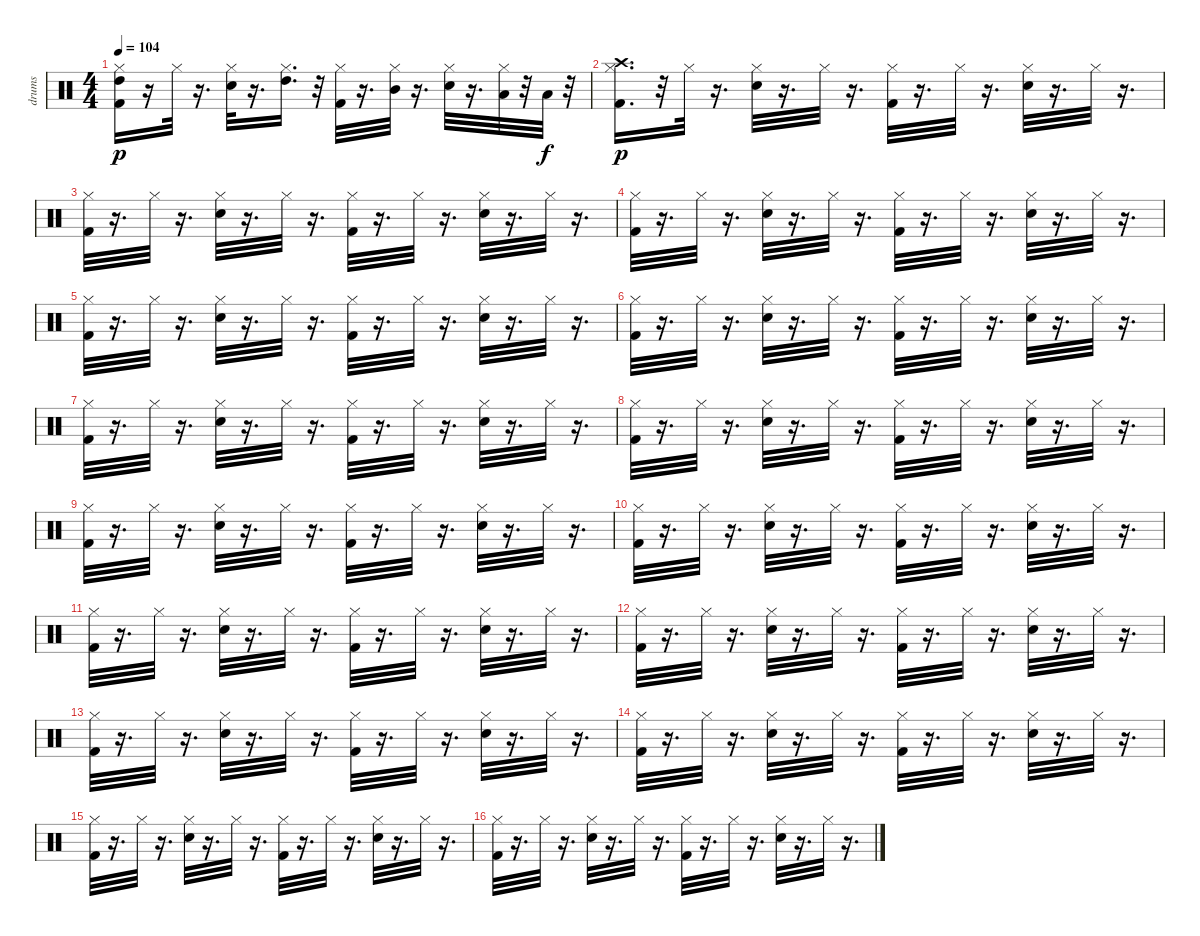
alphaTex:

\track ("drums" "drums") {instrument percussion}
\staff {score}
\articulation defaults
\ts (4 4)
\tempo 104
\clef neutral
\ks c
("Kick (hit) 2" "Hi-Hat (closed)" "High Tom (hit)").16{dy p} r.16 "Hi-Hat (closed)".32 r.16{d} ("Snare (hit) 2" "Hi-Hat (closed)").32 r.16{d} ("Hi-Hat (closed)" "High Tom (hit)").16{d} r.32 ("Kick (hit) 2" "Hi-Hat (closed)").32 r.16{d} ("Hi-Hat (closed)" "Mid Tom (hit)").32 r.16{d} ("Snare (hit) 2" "Hi-Hat (closed)").32 r.16{d} ("Hi-Hat (closed)" "Low Tom (hit)").32 r.32 "Low Tom (hit)".32{dy f} r.32 |
("Kick (hit) 2" "Hi-Hat (closed)" "Crash high (hit)").16{d dy p} r.32 "Hi-Hat (closed)".32 r.16{d} ("Snare (hit) 2" "Hi-Hat (closed)").32 r.16{d} "Hi-Hat (closed)".32 r.16{d} ("Kick (hit) 2" "Hi-Hat (closed)").32 r.16{d} "Hi-Hat (closed)".32 r.16{d} ("Snare (hit) 2" "Hi-Hat (closed)").32 r.16{d} "Hi-Hat (closed)".32 r.16{d} |
("Kick (hit) 2" "Hi-Hat (closed)").32 r.16{d} "Hi-Hat (closed)".32 r.16{d} ("Snare (hit) 2" "Hi-Hat (closed)").32 r.16{d} "Hi-Hat (closed)".32 r.16{d} ("Kick (hit) 2" "Hi-Hat (closed)").32 r.16{d} "Hi-Hat (closed)".32 r.16{d} ("Snare (hit) 2" "Hi-Hat (closed)").32 r.16{d} "Hi-Hat (closed)".32 r.16{d} |
("Kick (hit) 2" "Hi-Hat (closed)").32 r.16{d} "Hi-Hat (closed)".32 r.16{d} ("Snare (hit) 2" "Hi-Hat (closed)").32 r.16{d} "Hi-Hat (closed)".32 r.16{d} ("Kick (hit) 2" "Hi-Hat (closed)").32 r.16{d} "Hi-Hat (closed)".32 r.16{d} ("Snare (hit) 2" "Hi-Hat (closed)").32 r.16{d} "Hi-Hat (closed)".32 r.16{d} |
("Kick (hit) 2" "Hi-Hat (closed)").32 r.16{d} "Hi-Hat (closed)".32 r.16{d} ("Snare (hit) 2" "Hi-Hat (closed)").32 r.16{d} "Hi-Hat (closed)".32 r.16{d} ("Kick (hit) 2" "Hi-Hat (closed)").32 r.16{d} "Hi-Hat (closed)".32 r.16{d} ("Snare (hit) 2" "Hi-Hat (closed)").32 r.16{d} "Hi-Hat (closed)".32 r.16{d} |
("Kick (hit) 2" "Hi-Hat (closed)").32 r.16{d} "Hi-Hat (closed)".32 r.16{d} ("Snare (hit) 2" "Hi-Hat (closed)").32 r.16{d} "Hi-Hat (closed)".32 r.16{d} ("Kick (hit) 2" "Hi-Hat (closed)").32 r.16{d} "Hi-Hat (closed)".32 r.16{d} ("Snare (hit) 2" "Hi-Hat (closed)").32 r.16{d} "Hi-Hat (closed)".32 r.16{d} |
("Kick (hit) 2" "Hi-Hat (closed)").32 r.16{d} "Hi-Hat (closed)".32 r.16{d} ("Snare (hit) 2" "Hi-Hat (closed)").32 r.16{d} "Hi-Hat (closed)".32 r.16{d} ("Kick (hit) 2" "Hi-Hat (closed)").32 r.16{d} "Hi-Hat (closed)".32 r.16{d} ("Snare (hit) 2" "Hi-Hat (closed)").32 r.16{d} "Hi-Hat (closed)".32 r.16{d} |
("Kick (hit) 2" "Hi-Hat (closed)").32 r.16{d} "Hi-Hat (closed)".32 r.16{d} ("Snare (hit) 2" "Hi-Hat (closed)").32 r.16{d} "Hi-Hat (closed)".32 r.16{d} ("Kick (hit) 2" "Hi-Hat (closed)").32 r.16{d} "Hi-Hat (closed)".32 r.16{d} ("Snare (hit) 2" "Hi-Hat (closed)").32 r.16{d} "Hi-Hat (closed)".32 r.16{d} |
("Kick (hit) 2" "Hi-Hat (closed)").32 r.16{d} "Hi-Hat (closed)".32 r.16{d} ("Snare (hit) 2" "Hi-Hat (closed)").32 r.16{d} "Hi-Hat (closed)".32 r.16{d} ("Kick (hit) 2" "Hi-Hat (closed)").32 r.16{d} "Hi-Hat (closed)".32 r.16{d} ("Snare (hit) 2" "Hi-Hat (closed)").32 r.16{d} "Hi-Hat (closed)".32 r.16{d} |
("Kick (hit) 2" "Hi-Hat (closed)").32 r.16{d} "Hi-Hat (closed)".32 r.16{d} ("Snare (hit) 2" "Hi-Hat (closed)").32 r.16{d} "Hi-Hat (closed)".32 r.16{d} ("Kick (hit) 2" "Hi-Hat (closed)").32 r.16{d} "Hi-Hat (closed)".32 r.16{d} ("Snare (hit) 2" "Hi-Hat (closed)").32 r.16{d} "Hi-Hat (closed)".32 r.16{d} |
("Kick (hit) 2" "Hi-Hat (closed)").32 r.16{d} "Hi-Hat (closed)".32 r.16{d} ("Snare (hit) 2" "Hi-Hat (closed)").32 r.16{d} "Hi-Hat (closed)".32 r.16{d} ("Kick (hit) 2" "Hi-Hat (closed)").32 r.16{d} "Hi-Hat (closed)".32 r.16{d} ("Snare (hit) 2" "Hi-Hat (closed)").32 r.16{d} "Hi-Hat (closed)".32 r.16{d} |
("Kick (hit) 2" "Hi-Hat (closed)").32 r.16{d} "Hi-Hat (closed)".32 r.16{d} ("Snare (hit) 2" "Hi-Hat (closed)").32 r.16{d} "Hi-Hat (closed)".32 r.16{d} ("Kick (hit) 2" "Hi-Hat (closed)").32 r.16{d} "Hi-Hat (closed)".32 r.16{d} ("Snare (hit) 2" "Hi-Hat (closed)").32 r.16{d} "Hi-Hat (closed)".32 r.16{d} |
("Kick (hit) 2" "Hi-Hat (closed)").32 r.16{d} "Hi-Hat (closed)".32 r.16{d} ("Snare (hit) 2" "Hi-Hat (closed)").32 r.16{d} "Hi-Hat (closed)".32 r.16{d} ("Kick (hit) 2" "Hi-Hat (closed)").32 r.16{d} "Hi-Hat (closed)".32 r.16{d} ("Snare (hit) 2" "Hi-Hat (closed)").32 r.16{d} "Hi-Hat (closed)".32 r.16{d} |
("Kick (hit) 2" "Hi-Hat (closed)").32 r.16{d} "Hi-Hat (closed)".32 r.16{d} ("Snare (hit) 2" "Hi-Hat (closed)").32 r.16{d} "Hi-Hat (closed)".32 r.16{d} ("Kick (hit) 2" "Hi-Hat (closed)").32 r.16{d} "Hi-Hat (closed)".32 r.16{d} ("Snare (hit) 2" "Hi-Hat (closed)").32 r.16{d} "Hi-Hat (closed)".32 r.16{d} |
("Kick (hit) 2" "Hi-Hat (closed)").32 r.16{d} "Hi-Hat (closed)".32 r.16{d} ("Snare (hit) 2" "Hi-Hat (closed)").32 r.16{d} "Hi-Hat (closed)".32 r.16{d} ("Kick (hit) 2" "Hi-Hat (closed)").32 r.16{d} "Hi-Hat (closed)".32 r.16{d} ("Snare (hit) 2" "Hi-Hat (closed)").32 r.16{d} "Hi-Hat (closed)".32 r.16{d} |
("Kick (hit) 2" "Hi-Hat (closed)").32 r.16{d} "Hi-Hat (closed)".32 r.16{d} ("Snare (hit) 2" "Hi-Hat (closed)").32 r.16{d} "Hi-Hat (closed)".32 r.16{d} ("Kick (hit) 2" "Hi-Hat (closed)").32 r.16{d} "Hi-Hat (closed)".32 r.16{d} ("Snare (hit) 2" "Hi-Hat (closed)").32 r.16{d} "Hi-Hat (closed)".32 r.16{d}
